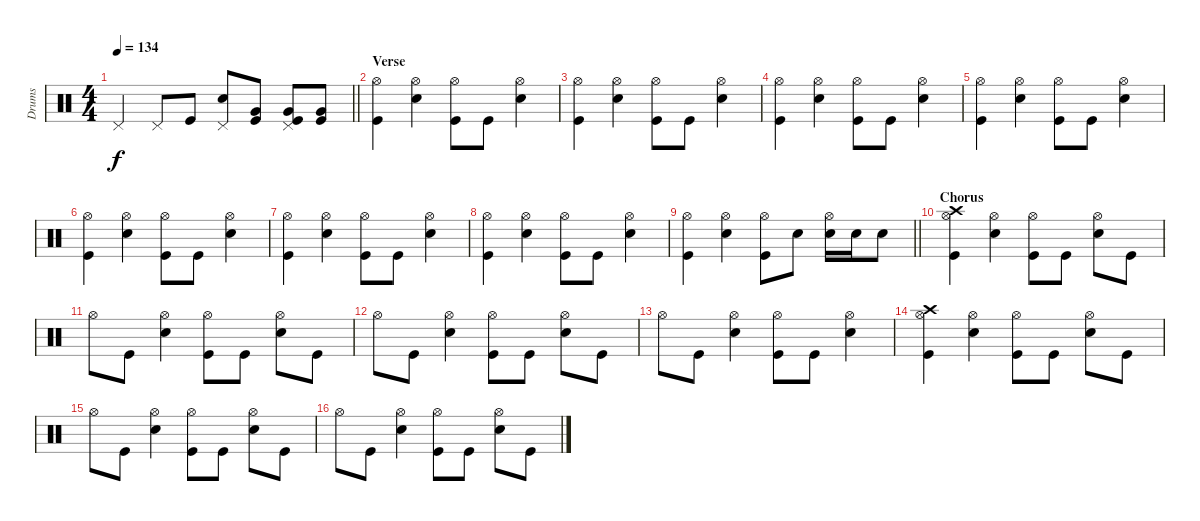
\track ("Drums" "Drums") {instrument percussion}
\staff {score}
\articulation defaults
\ts (4 4)
\tempo 134
\clef neutral
\barLineRight lightlight
\ks c "Pedal Hi-Hat (hit)".4{dy f} "Pedal Hi-Hat (hit)".8 "Kick (hit)".8
("Pedal Hi-Hat (hit)" "Snare (hit) 2").8 ("Very Low Tom (hit)" "Kick (hit)").8 ("Pedal Hi-Hat (hit)" "Very Low Tom (hit)" "Kick (hit)").8 ("Very Low Tom (hit)" "Kick (hit)").8 |
\section ("" "Verse")
("Hi-Hat (open)" "Kick (hit)").4 ("Hi-Hat (open)" "Snare (hit) 2").4 ("Hi-Hat (open)" "Kick (hit)").8 "Kick (hit)".8 ("Hi-Hat (open)" "Snare (hit) 2").4 |
("Hi-Hat (open)" "Kick (hit)").4 ("Hi-Hat (open)" "Snare (hit) 2").4 ("Hi-Hat (open)" "Kick (hit)").8 "Kick (hit)".8 ("Hi-Hat (open)" "Snare (hit) 2").4 |
("Hi-Hat (open)" "Kick (hit)").4 ("Hi-Hat (open)" "Snare (hit) 2").4 ("Hi-Hat (open)" "Kick (hit)").8 "Kick (hit)".8 ("Hi-Hat (open)" "Snare (hit) 2").4 |
("Hi-Hat (open)" "Kick (hit)").4 ("Hi-Hat (open)" "Snare (hit) 2").4 ("Hi-Hat (open)" "Kick (hit)").8 "Kick (hit)".8 ("Hi-Hat (open)" "Snare (hit) 2").4 |
("Hi-Hat (open)" "Kick (hit)").4 ("Hi-Hat (open)" "Snare (hit) 2").4 ("Hi-Hat (open)" "Kick (hit)").8 "Kick (hit)".8 ("Hi-Hat (open)" "Snare (hit) 2").4 |
("Hi-Hat (open)" "Kick (hit)").4 ("Hi-Hat (open)" "Snare (hit) 2").4 ("Hi-Hat (open)" "Kick (hit)").8 "Kick (hit)".8 ("Hi-Hat (open)" "Snare (hit) 2").4 |
("Hi-Hat (open)" "Kick (hit)").4 ("Hi-Hat (open)" "Snare (hit) 2").4 ("Hi-Hat (open)" "Kick (hit)").8 "Kick (hit)".8 ("Hi-Hat (open)" "Snare (hit) 2").4 |
\barLineRight lightlight
("Hi-Hat (open)" "Kick (hit)").4 ("Hi-Hat (open)" "Snare (hit) 2").4 ("Hi-Hat (open)" "Kick (hit)").8 "Snare (hit) 2".8 ("Hi-Hat (open)" "Electric Snare (hit)").16 "Electric Snare (hit)".16 "Electric Snare (hit)".8 |
\section ("" "Chorus")
("Crash high (hit)" "Hi-Hat (open)" "Kick (hit)").4 ("Hi-Hat (open)" "Snare (hit) 2").4 ("Hi-Hat (open)" "Kick (hit)").8 "Kick (hit)".8 ("Hi-Hat (open)" "Snare (hit) 2").8 "Kick (hit)".8 |
"Hi-Hat (open)".8 "Kick (hit)".8 ("Hi-Hat (open)" "Snare (hit) 2").4 ("Hi-Hat (open)" "Kick (hit)").8 "Kick (hit)".8 ("Hi-Hat (open)" "Snare (hit) 2").8 "Kick (hit)".8 |
"Hi-Hat (open)".8 "Kick (hit)".8 ("Hi-Hat (open)" "Snare (hit) 2").4 ("Hi-Hat (open)" "Kick (hit)").8 "Kick (hit)".8 ("Hi-Hat (open)" "Snare (hit) 2").8 "Kick (hit)".8 |
"Hi-Hat (open)".8 "Kick (hit)".8 ("Hi-Hat (open)" "Snare (hit) 2").4 ("Hi-Hat (open)" "Kick (hit)").8 "Kick (hit)".8 ("Hi-Hat (open)" "Snare (hit) 2").4 |
("Crash high (hit)" "Hi-Hat (open)" "Kick (hit)").4 ("Hi-Hat (open)" "Snare (hit) 2").4 ("Hi-Hat (open)" "Kick (hit)").8 "Kick (hit)".8 ("Hi-Hat (open)" "Snare (hit) 2").8 "Kick (hit)".8 |
"Hi-Hat (open)".8 "Kick (hit)".8 ("Hi-Hat (open)" "Snare (hit) 2").4 ("Hi-Hat (open)" "Kick (hit)").8 "Kick (hit)".8 ("Hi-Hat (open)" "Snare (hit) 2").8 "Kick (hit)".8 |
"Hi-Hat (open)".8 "Kick (hit)".8 ("Hi-Hat (open)" "Snare (hit) 2").4 ("Hi-Hat (open)" "Kick (hit)").8 "Kick (hit)".8 ("Hi-Hat (open)" "Snare (hit) 2").8 "Kick (hit)".8
